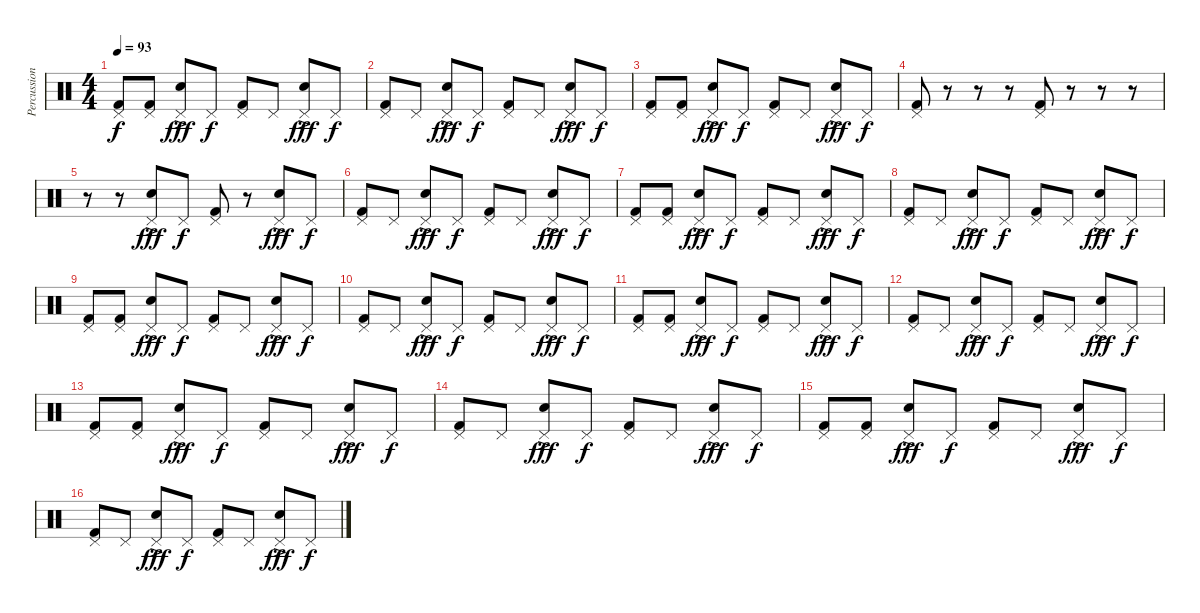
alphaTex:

\track ("Percussion" "Percussion") {instrument percussion}
\staff {score}
\articulation defaults
\ts (4 4)
\tempo 93
\clef neutral
\ks c
("Pedal Hi-Hat (hit)" "Kick (hit) 2").8{dy f} ("Pedal Hi-Hat (hit)" "Kick (hit) 2").8 ("Pedal Hi-Hat (hit)" "Electric Snare (hit)"{ac}).8{dy fff} "Pedal Hi-Hat (hit)".8{dy f} ("Pedal Hi-Hat (hit)" "Kick (hit) 2").8 "Pedal Hi-Hat (hit)".8 ("Pedal Hi-Hat (hit)" "Electric Snare (hit)"{ac}).8{dy fff} "Pedal Hi-Hat (hit)".8{dy f} |
("Pedal Hi-Hat (hit)" "Kick (hit) 2").8 "Pedal Hi-Hat (hit)".8 ("Pedal Hi-Hat (hit)" "Electric Snare (hit)"{ac}).8{dy fff} "Pedal Hi-Hat (hit)".8{dy f} ("Pedal Hi-Hat (hit)" "Kick (hit) 2").8 "Pedal Hi-Hat (hit)".8 ("Pedal Hi-Hat (hit)" "Electric Snare (hit)"{ac}).8{dy fff} "Pedal Hi-Hat (hit)".8{dy f} |
("Pedal Hi-Hat (hit)" "Kick (hit) 2").8 ("Pedal Hi-Hat (hit)" "Kick (hit) 2").8 ("Pedal Hi-Hat (hit)" "Electric Snare (hit)"{ac}).8{dy fff} "Pedal Hi-Hat (hit)".8{dy f} ("Pedal Hi-Hat (hit)" "Kick (hit) 2").8 "Pedal Hi-Hat (hit)".8 ("Pedal Hi-Hat (hit)" "Electric Snare (hit)"{ac}).8{dy fff} "Pedal Hi-Hat (hit)".8{dy f} |
("Pedal Hi-Hat (hit)" "Kick (hit) 2").8 r.8 r.8 r.8 ("Pedal Hi-Hat (hit)" "Kick (hit) 2").8 r.8 r.8 r.8 |
r.8 r.8 ("Pedal Hi-Hat (hit)" "Electric Snare (hit)"{ac}).8{dy fff} "Pedal Hi-Hat (hit)".8{dy f} ("Pedal Hi-Hat (hit)" "Kick (hit) 2").8 r.8 ("Pedal Hi-Hat (hit)" "Electric Snare (hit)"{ac}).8{dy fff} "Pedal Hi-Hat (hit)".8{dy f} |
("Pedal Hi-Hat (hit)" "Kick (hit) 2").8 "Pedal Hi-Hat (hit)".8 ("Pedal Hi-Hat (hit)" "Electric Snare (hit)"{ac}).8{dy fff} "Pedal Hi-Hat (hit)".8{dy f} ("Pedal Hi-Hat (hit)" "Kick (hit) 2").8 "Pedal Hi-Hat (hit)".8 ("Pedal Hi-Hat (hit)" "Electric Snare (hit)"{ac}).8{dy fff} "Pedal Hi-Hat (hit)".8{dy f} |
("Pedal Hi-Hat (hit)" "Kick (hit) 2").8 ("Pedal Hi-Hat (hit)" "Kick (hit) 2").8 ("Pedal Hi-Hat (hit)" "Electric Snare (hit)"{ac}).8{dy fff} "Pedal Hi-Hat (hit)".8{dy f} ("Pedal Hi-Hat (hit)" "Kick (hit) 2").8 "Pedal Hi-Hat (hit)".8 ("Pedal Hi-Hat (hit)" "Electric Snare (hit)"{ac}).8{dy fff} "Pedal Hi-Hat (hit)".8{dy f} |
("Pedal Hi-Hat (hit)" "Kick (hit) 2").8 "Pedal Hi-Hat (hit)".8 ("Pedal Hi-Hat (hit)" "Electric Snare (hit)"{ac}).8{dy fff} "Pedal Hi-Hat (hit)".8{dy f} ("Pedal Hi-Hat (hit)" "Kick (hit) 2").8 "Pedal Hi-Hat (hit)".8 ("Pedal Hi-Hat (hit)" "Electric Snare (hit)"{ac}).8{dy fff} "Pedal Hi-Hat (hit)".8{dy f} |
("Pedal Hi-Hat (hit)" "Kick (hit) 2").8 ("Pedal Hi-Hat (hit)" "Kick (hit) 2").8 ("Pedal Hi-Hat (hit)" "Electric Snare (hit)"{ac}).8{dy fff} "Pedal Hi-Hat (hit)".8{dy f} ("Pedal Hi-Hat (hit)" "Kick (hit) 2").8 "Pedal Hi-Hat (hit)".8 ("Pedal Hi-Hat (hit)" "Electric Snare (hit)"{ac}).8{dy fff} "Pedal Hi-Hat (hit)".8{dy f} |
("Pedal Hi-Hat (hit)" "Kick (hit) 2").8 "Pedal Hi-Hat (hit)".8 ("Pedal Hi-Hat (hit)" "Electric Snare (hit)"{ac}).8{dy fff} "Pedal Hi-Hat (hit)".8{dy f} ("Pedal Hi-Hat (hit)" "Kick (hit) 2").8 "Pedal Hi-Hat (hit)".8 ("Pedal Hi-Hat (hit)" "Electric Snare (hit)"{ac}).8{dy fff} "Pedal Hi-Hat (hit)".8{dy f} |
("Pedal Hi-Hat (hit)" "Kick (hit) 2").8 ("Pedal Hi-Hat (hit)" "Kick (hit) 2").8 ("Pedal Hi-Hat (hit)" "Electric Snare (hit)"{ac}).8{dy fff} "Pedal Hi-Hat (hit)".8{dy f} ("Pedal Hi-Hat (hit)" "Kick (hit) 2").8 "Pedal Hi-Hat (hit)".8 ("Pedal Hi-Hat (hit)" "Electric Snare (hit)"{ac}).8{dy fff} "Pedal Hi-Hat (hit)".8{dy f} |
("Pedal Hi-Hat (hit)" "Kick (hit) 2").8 "Pedal Hi-Hat (hit)".8 ("Pedal Hi-Hat (hit)" "Electric Snare (hit)"{ac}).8{dy fff} "Pedal Hi-Hat (hit)".8{dy f} ("Pedal Hi-Hat (hit)" "Kick (hit) 2").8 "Pedal Hi-Hat (hit)".8 ("Pedal Hi-Hat (hit)" "Electric Snare (hit)"{ac}).8{dy fff} "Pedal Hi-Hat (hit)".8{dy f} |
("Pedal Hi-Hat (hit)" "Kick (hit) 2").8 ("Pedal Hi-Hat (hit)" "Kick (hit) 2").8 ("Pedal Hi-Hat (hit)" "Electric Snare (hit)"{ac}).8{dy fff} "Pedal Hi-Hat (hit)".8{dy f} ("Pedal Hi-Hat (hit)" "Kick (hit) 2").8 "Pedal Hi-Hat (hit)".8 ("Pedal Hi-Hat (hit)" "Electric Snare (hit)"{ac}).8{dy fff} "Pedal Hi-Hat (hit)".8{dy f} |
("Pedal Hi-Hat (hit)" "Kick (hit) 2").8 "Pedal Hi-Hat (hit)".8 ("Pedal Hi-Hat (hit)" "Electric Snare (hit)"{ac}).8{dy fff} "Pedal Hi-Hat (hit)".8{dy f} ("Pedal Hi-Hat (hit)" "Kick (hit) 2").8 "Pedal Hi-Hat (hit)".8 ("Pedal Hi-Hat (hit)" "Electric Snare (hit)"{ac}).8{dy fff} "Pedal Hi-Hat (hit)".8{dy f} |
("Pedal Hi-Hat (hit)" "Kick (hit) 2").8 ("Pedal Hi-Hat (hit)" "Kick (hit) 2").8 ("Pedal Hi-Hat (hit)" "Electric Snare (hit)"{ac}).8{dy fff} "Pedal Hi-Hat (hit)".8{dy f} ("Pedal Hi-Hat (hit)" "Kick (hit) 2").8 "Pedal Hi-Hat (hit)".8 ("Pedal Hi-Hat (hit)" "Electric Snare (hit)"{ac}).8{dy fff} "Pedal Hi-Hat (hit)".8{dy f} |
("Pedal Hi-Hat (hit)" "Kick (hit) 2").8 "Pedal Hi-Hat (hit)".8 ("Pedal Hi-Hat (hit)" "Electric Snare (hit)"{ac}).8{dy fff} "Pedal Hi-Hat (hit)".8{dy f} ("Pedal Hi-Hat (hit)" "Kick (hit) 2").8 "Pedal Hi-Hat (hit)".8 ("Pedal Hi-Hat (hit)" "Electric Snare (hit)"{ac}).8{dy fff} "Pedal Hi-Hat (hit)".8{dy f}
